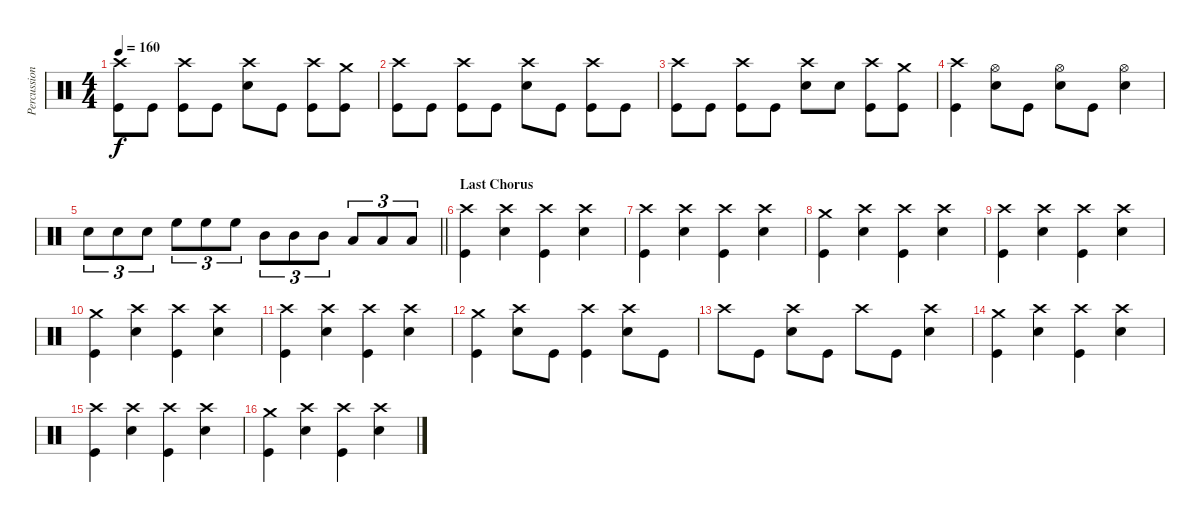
\track ("Percussions" "Percussion") {instrument percussion}
\staff {score}
\articulation defaults
\ts (4 4)
\tempo 160
\clef neutral
\ks c
("Kick (hit)" "Crash high (hit)").8{dy f} "Kick (hit)".8 ("Kick (hit)" "Crash high (hit)").8 "Kick (hit)".8 ("Snare (hit) 2" "Crash high (hit)").8 "Kick (hit)".8 ("Kick (hit)" "Crash high (hit)").8 ("Kick (hit)" "Crash medium (hit)").8 |
("Kick (hit)" "Crash high (hit)").8 "Kick (hit)".8 ("Kick (hit)" "Crash high (hit)").8 "Kick (hit)".8 ("Snare (hit) 2" "Crash high (hit)").8 "Kick (hit)".8 ("Kick (hit)" "Crash high (hit)").8 "Kick (hit)".8 |
("Kick (hit)" "Crash high (hit)").8 "Kick (hit)".8 ("Kick (hit)" "Crash high (hit)").8 "Kick (hit)".8 ("Snare (hit) 2" "Crash high (hit)").8 "Snare (hit) 2".8 ("Kick (hit)" "Crash high (hit)").8 ("Kick (hit)" "Crash medium (hit)").8 |
("Kick (hit)" "Crash high (hit)").4 ("Snare (hit) 2" "Hi-Hat (open)").8 "Kick (hit)".8 ("Snare (hit) 2" "Hi-Hat (open)").8 "Kick (hit)".8 ("Snare (hit) 2" "Hi-Hat (open)").4 |
\barLineRight lightlight "Snare (hit) 2".8{tu (3 2)} "Snare (hit) 2".8{tu (3 2)} "Snare (hit) 2".8{tu (3 2)} "High Floor Tom (hit)".8{tu (3 2)} "High Floor Tom (hit)".8{tu (3 2)} "High Floor Tom (hit)".8{tu (3 2)} "Mid Tom (hit)".8{tu (3 2)} "Mid Tom (hit)".8{tu (3 2)} "Mid Tom (hit)".8{tu (3 2)} "Low Tom (hit)".8{tu (3 2)} "Low Tom (hit)".8{tu (3 2)} "Low Tom (hit)".8{tu (3 2)}
|
\section ("" "Last Chorus")
("Kick (hit)" "Crash high (hit)").4 ("Snare (hit) 2" "Crash high (hit)").4 ("Kick (hit)" "Crash high (hit)").4 ("Snare (hit) 2" "Crash high (hit)").4 |
("Kick (hit)" "Crash high (hit)").4 ("Snare (hit) 2" "Crash high (hit)").4 ("Kick (hit)" "Crash high (hit)").4 ("Snare (hit) 2" "Crash high (hit)").4 |
("Kick (hit)" "Crash medium (hit)").4 ("Snare (hit) 2" "Crash high (hit)").4 ("Kick (hit)" "Crash high (hit)").4 ("Snare (hit) 2" "Crash high (hit)").4 |
("Kick (hit)" "Crash high (hit)").4 ("Snare (hit) 2" "Crash high (hit)").4 ("Kick (hit)" "Crash high (hit)").4 ("Snare (hit) 2" "Crash high (hit)").4 |
("Kick (hit)" "Crash medium (hit)").4 ("Snare (hit) 2" "Crash high (hit)").4 ("Kick (hit)" "Crash high (hit)").4 ("Snare (hit) 2" "Crash high (hit)").4 |
("Kick (hit)" "Crash high (hit)").4 ("Snare (hit) 2" "Crash high (hit)").4 ("Kick (hit)" "Crash high (hit)").4 ("Snare (hit) 2" "Crash high (hit)").4 |
("Kick (hit)" "Crash medium (hit)").4 ("Snare (hit) 2" "Crash high (hit)").8 "Kick (hit)".8 ("Kick (hit)" "Crash high (hit)").4 ("Snare (hit) 2" "Crash high (hit)").8 "Kick (hit)".8 |
"Crash high (hit)".8 "Kick (hit)".8 ("Snare (hit) 2" "Crash high (hit)").8 "Kick (hit)".8 "Crash high (hit)".8 "Kick (hit)".8 ("Snare (hit) 2" "Crash high (hit)").4 |
("Kick (hit)" "Crash medium (hit)").4 ("Snare (hit) 2" "Crash high (hit)").4 ("Kick (hit)" "Crash high (hit)").4 ("Snare (hit) 2" "Crash high (hit)").4 |
("Kick (hit)" "Crash high (hit)").4 ("Snare (hit) 2" "Crash high (hit)").4 ("Kick (hit)" "Crash high (hit)").4 ("Snare (hit) 2" "Crash high (hit)").4 |
("Kick (hit)" "Crash medium (hit)").4 ("Snare (hit) 2" "Crash high (hit)").4 ("Kick (hit)" "Crash high (hit)").4 ("Snare (hit) 2" "Crash high (hit)").4
